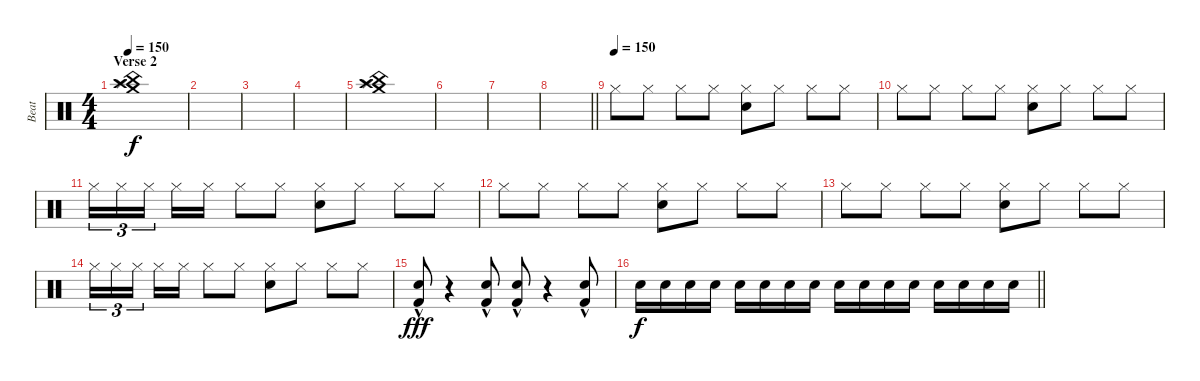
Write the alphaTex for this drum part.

\track ("Beat" "Beat") {instrument percussion}
\staff {score}
\articulation defaults
\ts (4 4)
\section ("" "Verse 2")
\tempo 150
\clef neutral
\ks c
("Crash medium (hit)" "Splash (hit)" "China (hit)" "Crash high (hit)").1{dy f volume 12} |
|
|
|
("Crash medium (hit)" "Splash (hit)" "China (hit)" "Crash high (hit)").1 |
|
|
\barLineRight lightlight
|
\tempo (150)
"Hi-Hat (closed)".8{volume 16} "Hi-Hat (closed)".8 "Hi-Hat (closed)".8 "Hi-Hat (closed)".8 ("Hi-Hat (closed)" "Hand Clap (hit)").8 "Hi-Hat (closed)".8 "Hi-Hat (closed)".8 "Hi-Hat (closed)".8 |
"Hi-Hat (closed)".8 "Hi-Hat (closed)".8 "Hi-Hat (closed)".8 "Hi-Hat (closed)".8 ("Hi-Hat (closed)" "Hand Clap (hit)").8 "Hi-Hat (closed)".8 "Hi-Hat (closed)".8 "Hi-Hat (closed)".8 |
"Hi-Hat (closed)".16{tu (3 2)} "Hi-Hat (closed)".16{tu (3 2)} "Hi-Hat (closed)".16{tu (3 2) beam splitsecondary} "Hi-Hat (closed)".16 "Hi-Hat (closed)".16 "Hi-Hat (closed)".8 "Hi-Hat (closed)".8 ("Hi-Hat (closed)" "Hand Clap (hit)").8 "Hi-Hat (closed)".8 "Hi-Hat (closed)".8 "Hi-Hat (closed)".8 |
"Hi-Hat (closed)".8 "Hi-Hat (closed)".8 "Hi-Hat (closed)".8 "Hi-Hat (closed)".8 ("Hi-Hat (closed)" "Hand Clap (hit)").8 "Hi-Hat (closed)".8 "Hi-Hat (closed)".8 "Hi-Hat (closed)".8 |
"Hi-Hat (closed)".8 "Hi-Hat (closed)".8 "Hi-Hat (closed)".8 "Hi-Hat (closed)".8 ("Hi-Hat (closed)" "Hand Clap (hit)").8 "Hi-Hat (closed)".8 "Hi-Hat (closed)".8 "Hi-Hat (closed)".8 |
"Hi-Hat (closed)".16{tu (3 2)} "Hi-Hat (closed)".16{tu (3 2)} "Hi-Hat (closed)".16{tu (3 2) beam splitsecondary} "Hi-Hat (closed)".16 "Hi-Hat (closed)".16 "Hi-Hat (closed)".8 "Hi-Hat (closed)".8 ("Hi-Hat (closed)" "Hand Clap (hit)").8 "Hi-Hat (closed)".8 "Hi-Hat (closed)".8 "Hi-Hat (closed)".8 |
("Snare (hit) 2" "Kick (hit) 2"{hac}).8{dy fff} r.4 ("Snare (hit) 2" "Kick (hit) 2"{hac}).8 ("Snare (hit) 2" "Kick (hit) 2"{hac}).8 r.4 ("Snare (hit) 2" "Kick (hit) 2"{hac}).8 |
\barLineRight lightlight "Snare (hit) 2".16{dy f} "Snare (hit) 2".16 "Snare (hit) 2".16 "Snare (hit) 2".16 "Snare (hit) 2".16 "Snare (hit) 2".16 "Snare (hit) 2".16 "Snare (hit) 2".16 "Snare (hit) 2".16 "Snare (hit) 2".16 "Snare (hit) 2".16 "Snare (hit) 2".16 "Snare (hit) 2".16 "Snare (hit) 2".16 "Snare (hit) 2".16 "Snare (hit) 2".16
